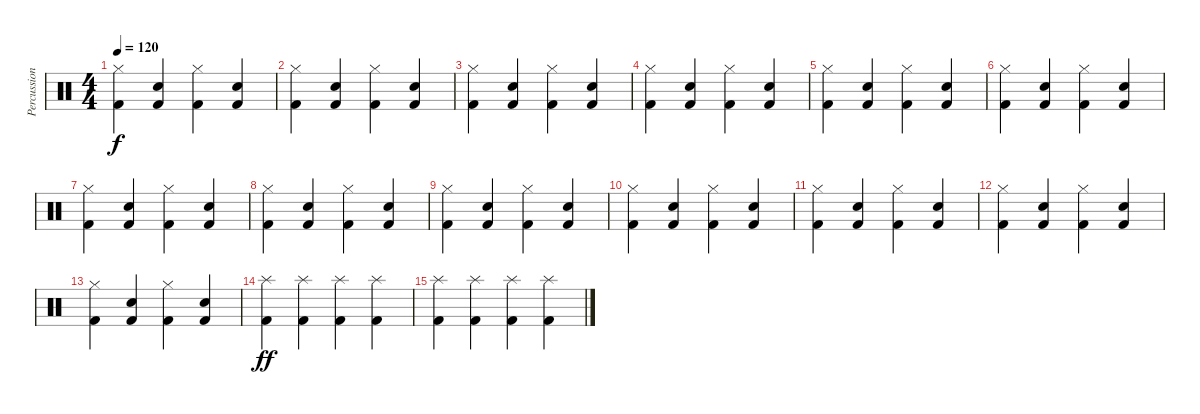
\track ("Percussion" "Percussion") {instrument percussion}
\staff {score}
\articulation defaults
\ts (4 4)
\tempo 120
\clef neutral
\ks c
("Hi-Hat (closed)" "Kick (hit) 2").4{dy f} ("Snare (hit) 2" "Kick (hit) 2").4 ("Hi-Hat (closed)" "Kick (hit) 2").4 ("Snare (hit) 2" "Kick (hit) 2").4 |
("Hi-Hat (closed)" "Kick (hit) 2").4 ("Snare (hit) 2" "Kick (hit) 2").4 ("Hi-Hat (closed)" "Kick (hit) 2").4 ("Snare (hit) 2" "Kick (hit) 2").4 |
("Hi-Hat (closed)" "Kick (hit) 2").4 ("Snare (hit) 2" "Kick (hit) 2").4 ("Hi-Hat (closed)" "Kick (hit) 2").4 ("Snare (hit) 2" "Kick (hit) 2").4 |
("Hi-Hat (closed)" "Kick (hit) 2").4 ("Snare (hit) 2" "Kick (hit) 2").4 ("Hi-Hat (closed)" "Kick (hit) 2").4 ("Snare (hit) 2" "Kick (hit) 2").4 |
("Hi-Hat (closed)" "Kick (hit) 2").4 ("Snare (hit) 2" "Kick (hit) 2").4 ("Hi-Hat (closed)" "Kick (hit) 2").4 ("Snare (hit) 2" "Kick (hit) 2").4 |
("Hi-Hat (closed)" "Kick (hit) 2").4 ("Snare (hit) 2" "Kick (hit) 2").4 ("Hi-Hat (closed)" "Kick (hit) 2").4 ("Snare (hit) 2" "Kick (hit) 2").4 |
("Hi-Hat (closed)" "Kick (hit) 2").4 ("Snare (hit) 2" "Kick (hit) 2").4 ("Hi-Hat (closed)" "Kick (hit) 2").4 ("Snare (hit) 2" "Kick (hit) 2").4 |
("Hi-Hat (closed)" "Kick (hit) 2").4 ("Snare (hit) 2" "Kick (hit) 2").4 ("Hi-Hat (closed)" "Kick (hit) 2").4 ("Snare (hit) 2" "Kick (hit) 2").4 |
("Hi-Hat (closed)" "Kick (hit) 2").4 ("Snare (hit) 2" "Kick (hit) 2").4 ("Hi-Hat (closed)" "Kick (hit) 2").4 ("Snare (hit) 2" "Kick (hit) 2").4 |
("Hi-Hat (closed)" "Kick (hit) 2").4 ("Snare (hit) 2" "Kick (hit) 2").4 ("Hi-Hat (closed)" "Kick (hit) 2").4 ("Snare (hit) 2" "Kick (hit) 2").4 |
("Hi-Hat (closed)" "Kick (hit) 2").4 ("Snare (hit) 2" "Kick (hit) 2").4 ("Hi-Hat (closed)" "Kick (hit) 2").4 ("Snare (hit) 2" "Kick (hit) 2").4 |
("Hi-Hat (closed)" "Kick (hit) 2").4 ("Snare (hit) 2" "Kick (hit) 2").4 ("Hi-Hat (closed)" "Kick (hit) 2").4 ("Snare (hit) 2" "Kick (hit) 2").4 |
("Hi-Hat (closed)" "Kick (hit) 2").4 ("Snare (hit) 2" "Kick (hit) 2").4 ("Hi-Hat (closed)" "Kick (hit) 2").4 ("Snare (hit) 2" "Kick (hit) 2").4 |
("Splash (hit)" "Kick (hit) 2").4{dy ff} ("Splash (hit)" "Kick (hit) 2").4 ("Splash (hit)" "Kick (hit) 2").4 ("Splash (hit)" "Kick (hit) 2").4 |
("Splash (hit)" "Kick (hit) 2").4 ("Splash (hit)" "Kick (hit) 2").4 ("Splash (hit)" "Kick (hit) 2").4 ("Splash (hit)" "Kick (hit) 2").4
